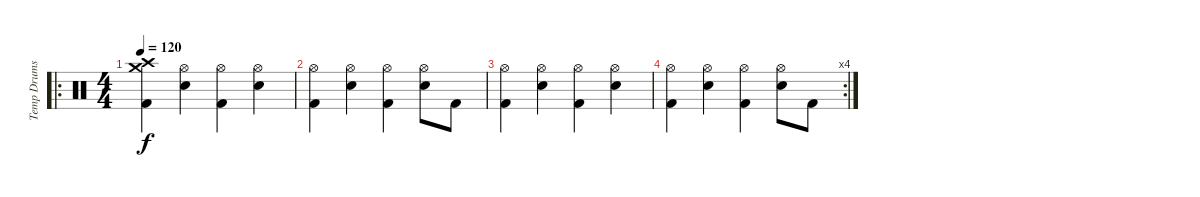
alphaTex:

\track ("Temp Drums (i dont know them!)" "Temp Drums") {instrument percussion}
\staff {score}
\articulation defaults
\ro
\ts (4 4)
\tempo 120
\clef neutral
\ks c
("Crash medium (hit)" "Crash high (hit)" "Kick (hit) 2").4{dy f} ("Hi-Hat (open)" "Snare (hit) 2").4 ("Hi-Hat (open)" "Kick (hit) 2").4 ("Hi-Hat (open)" "Snare (hit) 2").4 |
("Hi-Hat (open)" "Kick (hit) 2").4 ("Hi-Hat (open)" "Snare (hit) 2").4 ("Hi-Hat (open)" "Kick (hit) 2").4 ("Hi-Hat (open)" "Snare (hit) 2").8 "Kick (hit) 2".8 |
("Hi-Hat (open)" "Kick (hit) 2").4 ("Hi-Hat (open)" "Snare (hit) 2").4 ("Hi-Hat (open)" "Kick (hit) 2").4 ("Hi-Hat (open)" "Snare (hit) 2").4 |
\rc 4
("Hi-Hat (open)" "Kick (hit) 2").4 ("Hi-Hat (open)" "Snare (hit) 2").4 ("Hi-Hat (open)" "Kick (hit) 2").4 ("Hi-Hat (open)" "Snare (hit) 2").8 "Kick (hit) 2".8
